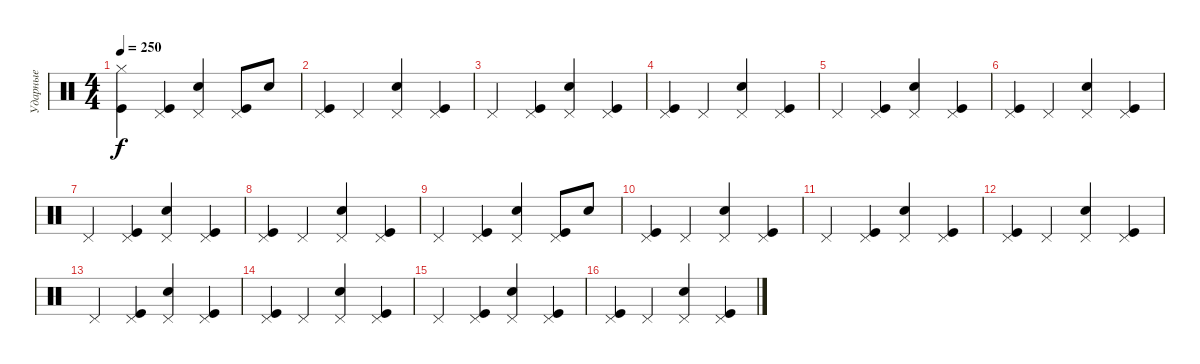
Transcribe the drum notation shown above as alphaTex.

\track ("Ударные" "Ударные") {instrument percussion}
\staff {score}
\articulation defaults
\ts (4 4)
\tempo 250
\clef neutral
\ks c
("Kick (hit)" "Hi-Hat (closed)").4{dy f} ("Kick (hit)" "Pedal Hi-Hat (hit)").4 ("Electric Snare (hit)" "Pedal Hi-Hat (hit)").4 ("Kick (hit)" "Pedal Hi-Hat (hit)").8 "Electric Snare (hit)".8 |
("Kick (hit)" "Pedal Hi-Hat (hit)").4 "Pedal Hi-Hat (hit)".4 ("Electric Snare (hit)" "Pedal Hi-Hat (hit)").4 ("Kick (hit)" "Pedal Hi-Hat (hit)").4 |
"Pedal Hi-Hat (hit)".4 ("Kick (hit)" "Pedal Hi-Hat (hit)").4 ("Electric Snare (hit)" "Pedal Hi-Hat (hit)").4 ("Kick (hit)" "Pedal Hi-Hat (hit)").4 |
("Kick (hit)" "Pedal Hi-Hat (hit)").4 "Pedal Hi-Hat (hit)".4 ("Electric Snare (hit)" "Pedal Hi-Hat (hit)").4 ("Kick (hit)" "Pedal Hi-Hat (hit)").4 |
"Pedal Hi-Hat (hit)".4 ("Kick (hit)" "Pedal Hi-Hat (hit)").4 ("Electric Snare (hit)" "Pedal Hi-Hat (hit)").4 ("Kick (hit)" "Pedal Hi-Hat (hit)").4 |
("Kick (hit)" "Pedal Hi-Hat (hit)").4 "Pedal Hi-Hat (hit)".4 ("Electric Snare (hit)" "Pedal Hi-Hat (hit)").4 ("Kick (hit)" "Pedal Hi-Hat (hit)").4 |
"Pedal Hi-Hat (hit)".4 ("Kick (hit)" "Pedal Hi-Hat (hit)").4 ("Electric Snare (hit)" "Pedal Hi-Hat (hit)").4 ("Kick (hit)" "Pedal Hi-Hat (hit)").4 |
("Kick (hit)" "Pedal Hi-Hat (hit)").4 "Pedal Hi-Hat (hit)".4 ("Electric Snare (hit)" "Pedal Hi-Hat (hit)").4 ("Kick (hit)" "Pedal Hi-Hat (hit)").4 |
"Pedal Hi-Hat (hit)".4 ("Kick (hit)" "Pedal Hi-Hat (hit)").4 ("Electric Snare (hit)" "Pedal Hi-Hat (hit)").4 ("Kick (hit)" "Pedal Hi-Hat (hit)").8 "Electric Snare (hit)".8 |
("Kick (hit)" "Pedal Hi-Hat (hit)").4 "Pedal Hi-Hat (hit)".4 ("Electric Snare (hit)" "Pedal Hi-Hat (hit)").4 ("Kick (hit)" "Pedal Hi-Hat (hit)").4 |
"Pedal Hi-Hat (hit)".4 ("Kick (hit)" "Pedal Hi-Hat (hit)").4 ("Electric Snare (hit)" "Pedal Hi-Hat (hit)").4 ("Kick (hit)" "Pedal Hi-Hat (hit)").4 |
("Kick (hit)" "Pedal Hi-Hat (hit)").4 "Pedal Hi-Hat (hit)".4 ("Electric Snare (hit)" "Pedal Hi-Hat (hit)").4 ("Kick (hit)" "Pedal Hi-Hat (hit)").4 |
"Pedal Hi-Hat (hit)".4 ("Kick (hit)" "Pedal Hi-Hat (hit)").4 ("Electric Snare (hit)" "Pedal Hi-Hat (hit)").4 ("Kick (hit)" "Pedal Hi-Hat (hit)").4 |
("Kick (hit)" "Pedal Hi-Hat (hit)").4 "Pedal Hi-Hat (hit)".4 ("Electric Snare (hit)" "Pedal Hi-Hat (hit)").4 ("Kick (hit)" "Pedal Hi-Hat (hit)").4 |
"Pedal Hi-Hat (hit)".4 ("Kick (hit)" "Pedal Hi-Hat (hit)").4 ("Electric Snare (hit)" "Pedal Hi-Hat (hit)").4 ("Kick (hit)" "Pedal Hi-Hat (hit)").4 |
("Kick (hit)" "Pedal Hi-Hat (hit)").4 "Pedal Hi-Hat (hit)".4 ("Electric Snare (hit)" "Pedal Hi-Hat (hit)").4 ("Kick (hit)" "Pedal Hi-Hat (hit)").4
